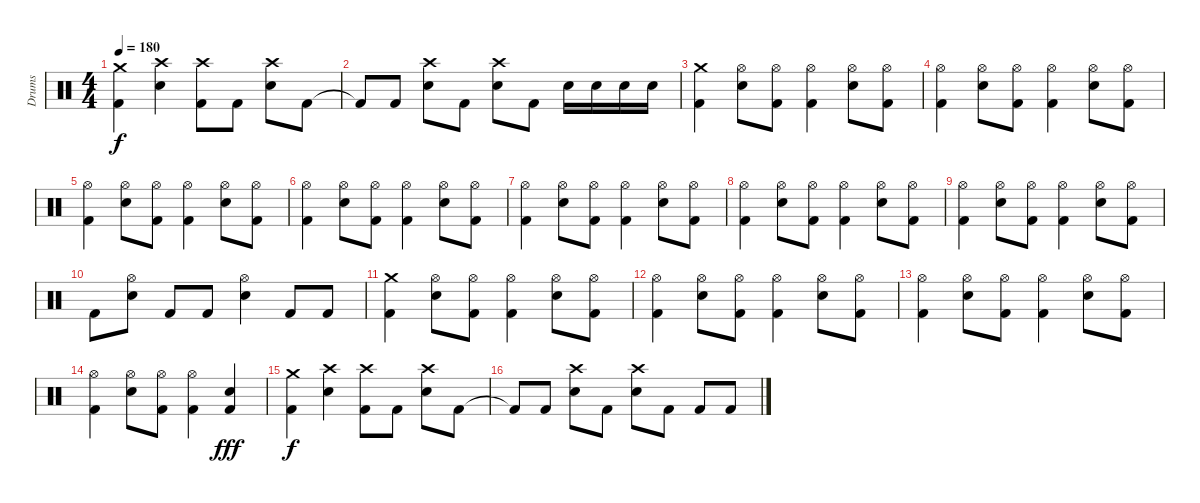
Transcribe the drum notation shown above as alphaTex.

\track ("Drums" "Drums") {instrument percussion}
\staff {score}
\articulation defaults
\ts (4 4)
\tempo 180
\clef neutral
\ks c
("Crash medium (hit)" "Kick (hit) 2").4{dy f} ("Crash high (hit)" "Electric Snare (hit)").4 ("Crash high (hit)" "Kick (hit) 2").8 "Kick (hit) 2".8 ("Crash high (hit)" "Electric Snare (hit)").8 "Kick (hit) 2".8 |
"Kick (hit) 2"{t}.8 "Kick (hit) 2".8 ("Crash high (hit)" "Electric Snare (hit)").8 "Kick (hit) 2".8 ("Crash high (hit)" "Electric Snare (hit)").8 "Kick (hit) 2".8 "Electric Snare (hit)".16 "Electric Snare (hit)".16 "Electric Snare (hit)".16 "Electric Snare (hit)".16 |
("Crash medium (hit)" "Kick (hit) 2").4 ("Hi-Hat (open)" "Electric Snare (hit)").8 ("Hi-Hat (open)" "Kick (hit) 2").8 ("Hi-Hat (open)" "Kick (hit) 2").4 ("Hi-Hat (open)" "Electric Snare (hit)").8 ("Hi-Hat (open)" "Kick (hit) 2").8 |
("Hi-Hat (open)" "Kick (hit) 2").4 ("Hi-Hat (open)" "Electric Snare (hit)").8 ("Hi-Hat (open)" "Kick (hit) 2").8 ("Hi-Hat (open)" "Kick (hit) 2").4 ("Hi-Hat (open)" "Electric Snare (hit)").8 ("Hi-Hat (open)" "Kick (hit) 2").8 |
("Hi-Hat (open)" "Kick (hit) 2").4 ("Hi-Hat (open)" "Electric Snare (hit)").8 ("Hi-Hat (open)" "Kick (hit) 2").8 ("Hi-Hat (open)" "Kick (hit) 2").4 ("Hi-Hat (open)" "Electric Snare (hit)").8 ("Hi-Hat (open)" "Kick (hit) 2").8 |
("Hi-Hat (open)" "Kick (hit) 2").4 ("Hi-Hat (open)" "Electric Snare (hit)").8 ("Hi-Hat (open)" "Kick (hit) 2").8 ("Hi-Hat (open)" "Kick (hit) 2").4 ("Hi-Hat (open)" "Electric Snare (hit)").8 ("Hi-Hat (open)" "Kick (hit) 2").8 |
("Hi-Hat (open)" "Kick (hit) 2").4 ("Hi-Hat (open)" "Electric Snare (hit)").8 ("Hi-Hat (open)" "Kick (hit) 2").8 ("Hi-Hat (open)" "Kick (hit) 2").4 ("Hi-Hat (open)" "Electric Snare (hit)").8 ("Hi-Hat (open)" "Kick (hit) 2").8 |
("Hi-Hat (open)" "Kick (hit) 2").4 ("Hi-Hat (open)" "Electric Snare (hit)").8 ("Hi-Hat (open)" "Kick (hit) 2").8 ("Hi-Hat (open)" "Kick (hit) 2").4 ("Hi-Hat (open)" "Electric Snare (hit)").8 ("Hi-Hat (open)" "Kick (hit) 2").8 |
("Hi-Hat (open)" "Kick (hit) 2").4 ("Hi-Hat (open)" "Electric Snare (hit)").8 ("Hi-Hat (open)" "Kick (hit) 2").8 ("Hi-Hat (open)" "Kick (hit) 2").4 ("Hi-Hat (open)" "Electric Snare (hit)").8 ("Hi-Hat (open)" "Kick (hit) 2").8 |
"Kick (hit) 2".8 ("Hi-Hat (open)" "Electric Snare (hit)").8 "Kick (hit) 2".8 "Kick (hit) 2".8 ("Hi-Hat (open)" "Electric Snare (hit)").4 "Kick (hit) 2".8 "Kick (hit) 2".8 |
("Crash medium (hit)" "Kick (hit) 2").4 ("Hi-Hat (open)" "Electric Snare (hit)").8 ("Hi-Hat (open)" "Kick (hit) 2").8 ("Hi-Hat (open)" "Kick (hit) 2").4 ("Hi-Hat (open)" "Electric Snare (hit)").8 ("Hi-Hat (open)" "Kick (hit) 2").8 |
("Hi-Hat (open)" "Kick (hit) 2").4 ("Hi-Hat (open)" "Electric Snare (hit)").8 ("Hi-Hat (open)" "Kick (hit) 2").8 ("Hi-Hat (open)" "Kick (hit) 2").4 ("Hi-Hat (open)" "Electric Snare (hit)").8 ("Hi-Hat (open)" "Kick (hit) 2").8 |
("Hi-Hat (open)" "Kick (hit) 2").4 ("Hi-Hat (open)" "Electric Snare (hit)").8 ("Hi-Hat (open)" "Kick (hit) 2").8 ("Hi-Hat (open)" "Kick (hit) 2").4 ("Hi-Hat (open)" "Electric Snare (hit)").8 ("Hi-Hat (open)" "Kick (hit) 2").8 |
("Hi-Hat (open)" "Kick (hit) 2").4 ("Hi-Hat (open)" "Electric Snare (hit)").8 ("Hi-Hat (open)" "Kick (hit) 2").8 ("Hi-Hat (open)" "Kick (hit) 2").4 ("Electric Snare (hit)" "Kick (hit) 2").4{dy fff} |
("Crash medium (hit)" "Kick (hit) 2").4{dy f} ("Crash high (hit)" "Electric Snare (hit)").4 ("Crash high (hit)" "Kick (hit) 2").8 "Kick (hit) 2".8 ("Crash high (hit)" "Electric Snare (hit)").8 "Kick (hit) 2".8 |
"Kick (hit) 2"{t}.8 "Kick (hit) 2".8 ("Crash high (hit)" "Electric Snare (hit)").8 "Kick (hit) 2".8 ("Crash high (hit)" "Electric Snare (hit)").8 "Kick (hit) 2".8 "Kick (hit) 2".8 "Kick (hit) 2".8
